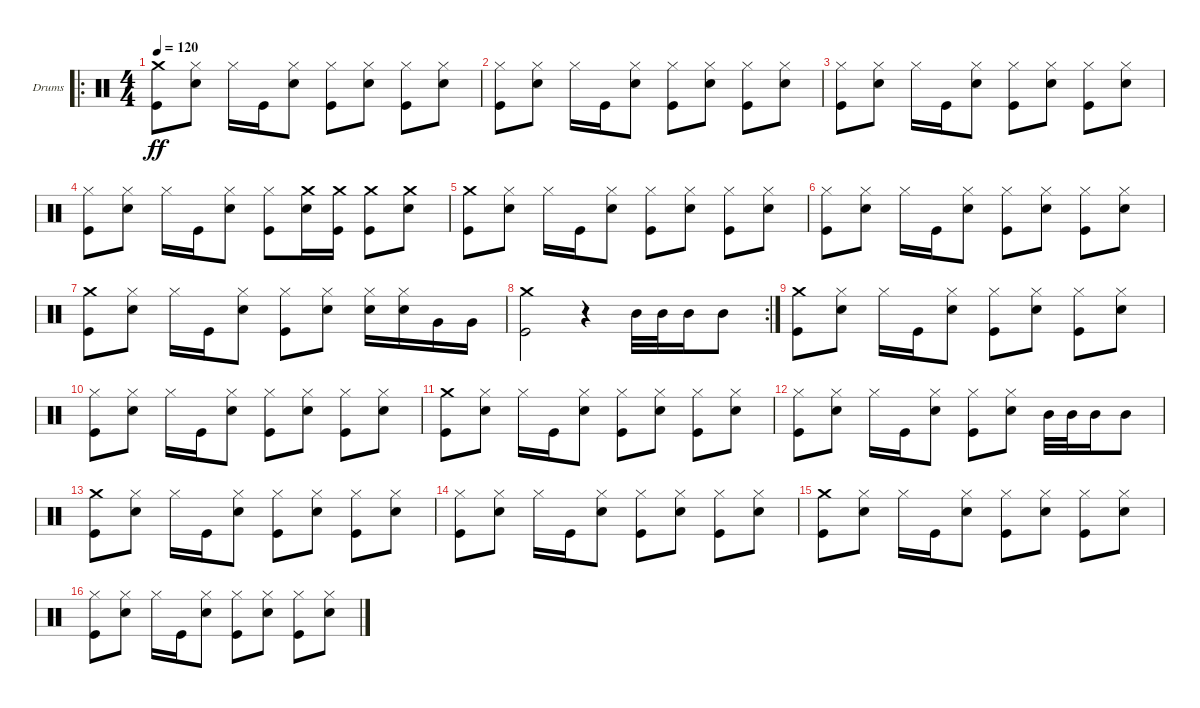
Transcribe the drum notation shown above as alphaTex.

\bracketExtendMode groupsimilarinstruments
\firstSystemTrackNameOrientation horizontal
\otherSystemsTrackNameOrientation horizontal
\track ("Drumkit" "Drums") {instrument percussion}
\staff {score}
\articulation defaults
\ro
\ts (4 4)
\tempo 120
\clef neutral
\ks c
("Kick (hit)" "Crash medium (hit)").8{dy ff} ("Snare (hit) 2" "Hi-Hat (closed)").8 "Hi-Hat (closed)".16 "Kick (hit)".16 ("Snare (hit) 2" "Hi-Hat (closed)").8 ("Kick (hit)" "Hi-Hat (closed)").8 ("Snare (hit) 2" "Hi-Hat (closed)").8 ("Kick (hit)" "Hi-Hat (closed)").8 ("Snare (hit) 2" "Hi-Hat (closed)").8 |
("Kick (hit)" "Hi-Hat (closed)").8 ("Snare (hit) 2" "Hi-Hat (closed)").8 "Hi-Hat (closed)".16 "Kick (hit)".16 ("Snare (hit) 2" "Hi-Hat (closed)").8 ("Kick (hit)" "Hi-Hat (closed)").8 ("Snare (hit) 2" "Hi-Hat (closed)").8 ("Kick (hit)" "Hi-Hat (closed)").8 ("Snare (hit) 2" "Hi-Hat (closed)").8 |
("Kick (hit)" "Hi-Hat (closed)").8 ("Snare (hit) 2" "Hi-Hat (closed)").8 "Hi-Hat (closed)".16 "Kick (hit)".16 ("Snare (hit) 2" "Hi-Hat (closed)").8 ("Kick (hit)" "Hi-Hat (closed)").8 ("Snare (hit) 2" "Hi-Hat (closed)").8 ("Kick (hit)" "Hi-Hat (closed)").8 ("Snare (hit) 2" "Hi-Hat (closed)").8 |
("Kick (hit)" "Hi-Hat (closed)").8 ("Snare (hit) 2" "Hi-Hat (closed)").8 "Hi-Hat (closed)".16 "Kick (hit)".16 ("Snare (hit) 2" "Hi-Hat (closed)").8 ("Kick (hit)" "Hi-Hat (closed)").8 ("Snare (hit) 2" "Crash medium (hit)").16 ("Kick (hit)" "Crash medium (hit)").16 ("Kick (hit)" "Crash medium (hit)").8 ("Snare (hit) 2" "Crash medium (hit)").8 |
("Kick (hit)" "Crash medium (hit)").8 ("Snare (hit) 2" "Hi-Hat (closed)").8 "Hi-Hat (closed)".16 "Kick (hit)".16 ("Snare (hit) 2" "Hi-Hat (closed)").8 ("Kick (hit)" "Hi-Hat (closed)").8 ("Snare (hit) 2" "Hi-Hat (closed)").8 ("Kick (hit)" "Hi-Hat (closed)").8 ("Snare (hit) 2" "Hi-Hat (closed)").8 |
("Kick (hit)" "Hi-Hat (closed)").8 ("Snare (hit) 2" "Hi-Hat (closed)").8 "Hi-Hat (closed)".16 "Kick (hit)".16 ("Snare (hit) 2" "Hi-Hat (closed)").8 ("Kick (hit)" "Hi-Hat (closed)").8 ("Snare (hit) 2" "Hi-Hat (closed)").8 ("Kick (hit)" "Hi-Hat (closed)").8 ("Snare (hit) 2" "Hi-Hat (closed)").8 |
("Kick (hit)" "Crash medium (hit)").8 ("Snare (hit) 2" "Hi-Hat (closed)").8 "Hi-Hat (closed)".16 "Kick (hit)".16 ("Snare (hit) 2" "Hi-Hat (closed)").8 ("Kick (hit)" "Hi-Hat (closed)").8 ("Snare (hit) 2" "Hi-Hat (closed)").8 ("Snare (hit) 2" "Hi-Hat (closed)").16 ("Snare (hit) 2" "Hi-Hat (closed)").16 "Very Low Tom (hit)".16 "Very Low Tom (hit)".16 |
\rc 2
("Kick (hit)" "Crash medium (hit)").2 r.4 "Mid Tom (hit)".32 "Mid Tom (hit)".32 "Mid Tom (hit)".16 "Mid Tom (hit)".8 |
("Kick (hit)" "Crash medium (hit)").8 ("Snare (hit) 2" "Hi-Hat (closed)").8 "Hi-Hat (closed)".16 "Kick (hit)".16 ("Snare (hit) 2" "Hi-Hat (closed)").8 ("Kick (hit)" "Hi-Hat (closed)").8 ("Snare (hit) 2" "Hi-Hat (closed)").8 ("Kick (hit)" "Hi-Hat (closed)").8 ("Snare (hit) 2" "Hi-Hat (closed)").8 |
("Kick (hit)" "Hi-Hat (closed)").8 ("Snare (hit) 2" "Hi-Hat (closed)").8 "Hi-Hat (closed)".16 "Kick (hit)".16 ("Snare (hit) 2" "Hi-Hat (closed)").8 ("Kick (hit)" "Hi-Hat (closed)").8 ("Snare (hit) 2" "Hi-Hat (closed)").8 ("Kick (hit)" "Hi-Hat (closed)").8 ("Snare (hit) 2" "Hi-Hat (closed)").8 |
("Kick (hit)" "Crash medium (hit)").8 ("Snare (hit) 2" "Hi-Hat (closed)").8 "Hi-Hat (closed)".16 "Kick (hit)".16 ("Snare (hit) 2" "Hi-Hat (closed)").8 ("Kick (hit)" "Hi-Hat (closed)").8 ("Snare (hit) 2" "Hi-Hat (closed)").8 ("Kick (hit)" "Hi-Hat (closed)").8 ("Snare (hit) 2" "Hi-Hat (closed)").8 |
("Kick (hit)" "Hi-Hat (closed)").8 ("Snare (hit) 2" "Hi-Hat (closed)").8 "Hi-Hat (closed)".16 "Kick (hit)".16 ("Snare (hit) 2" "Hi-Hat (closed)").8 ("Kick (hit)" "Hi-Hat (closed)").8 ("Snare (hit) 2" "Hi-Hat (closed)").8 "Mid Tom (hit)".32 "Mid Tom (hit)".32 "Mid Tom (hit)".16 "Mid Tom (hit)".8 |
("Kick (hit)" "Crash medium (hit)").8 ("Snare (hit) 2" "Hi-Hat (closed)").8 "Hi-Hat (closed)".16 "Kick (hit)".16 ("Snare (hit) 2" "Hi-Hat (closed)").8 ("Kick (hit)" "Hi-Hat (closed)").8 ("Snare (hit) 2" "Hi-Hat (closed)").8 ("Kick (hit)" "Hi-Hat (closed)").8 ("Snare (hit) 2" "Hi-Hat (closed)").8 |
("Kick (hit)" "Hi-Hat (closed)").8 ("Snare (hit) 2" "Hi-Hat (closed)").8 "Hi-Hat (closed)".16 "Kick (hit)".16 ("Snare (hit) 2" "Hi-Hat (closed)").8 ("Kick (hit)" "Hi-Hat (closed)").8 ("Snare (hit) 2" "Hi-Hat (closed)").8 ("Kick (hit)" "Hi-Hat (closed)").8 ("Snare (hit) 2" "Hi-Hat (closed)").8 |
("Kick (hit)" "Crash medium (hit)").8 ("Snare (hit) 2" "Hi-Hat (closed)").8 "Hi-Hat (closed)".16 "Kick (hit)".16 ("Snare (hit) 2" "Hi-Hat (closed)").8 ("Kick (hit)" "Hi-Hat (closed)").8 ("Snare (hit) 2" "Hi-Hat (closed)").8 ("Kick (hit)" "Hi-Hat (closed)").8 ("Snare (hit) 2" "Hi-Hat (closed)").8 |
("Kick (hit)" "Hi-Hat (closed)").8 ("Snare (hit) 2" "Hi-Hat (closed)").8 "Hi-Hat (closed)".16 "Kick (hit)".16 ("Snare (hit) 2" "Hi-Hat (closed)").8 ("Kick (hit)" "Hi-Hat (closed)").8 ("Snare (hit) 2" "Hi-Hat (closed)").8 ("Kick (hit)" "Hi-Hat (closed)").8 ("Snare (hit) 2" "Hi-Hat (closed)").8
